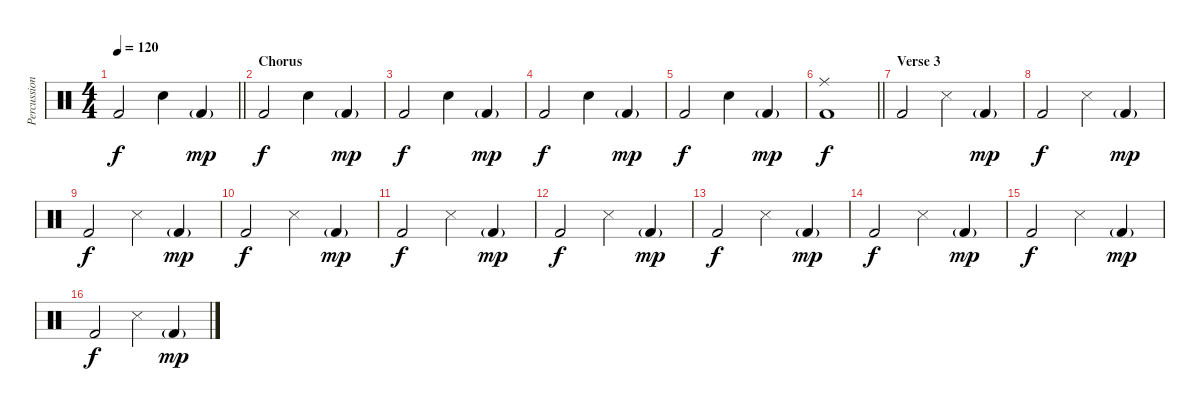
\track ("Percussion" "Percussion") {instrument percussion}
\staff {score}
\articulation defaults
\ts (4 4)
\tempo 120
\clef neutral
\barLineRight lightlight
\ks c "Kick (hit) 2".2{dy f} "Snare (hit) 2".4 "Kick (hit) 2"{g}.4{dy mp}
|
\section ("" "Chorus")
"Kick (hit) 2".2{dy f} "Snare (hit) 2".4 "Kick (hit) 2"{g}.4{dy mp} |
"Kick (hit) 2".2{dy f} "Snare (hit) 2".4 "Kick (hit) 2"{g}.4{dy mp} |
"Kick (hit) 2".2{dy f} "Snare (hit) 2".4 "Kick (hit) 2"{g}.4{dy mp} |
"Kick (hit) 2".2{dy f} "Snare (hit) 2".4 "Kick (hit) 2"{g}.4{dy mp} |
\barLineRight lightlight
("Ride (middle)" "Kick (hit) 2").1{dy f} |
\section ("" "Verse 3")
"Kick (hit) 2".2 "Snare (side stick) 3".4 "Kick (hit) 2"{g}.4{dy mp} |
"Kick (hit) 2".2{dy f} "Snare (side stick) 3".4 "Kick (hit) 2"{g}.4{dy mp} |
"Kick (hit) 2".2{dy f} "Snare (side stick) 3".4 "Kick (hit) 2"{g}.4{dy mp} |
"Kick (hit) 2".2{dy f} "Snare (side stick) 3".4 "Kick (hit) 2"{g}.4{dy mp} |
"Kick (hit) 2".2{dy f} "Snare (side stick) 3".4 "Kick (hit) 2"{g}.4{dy mp} |
"Kick (hit) 2".2{dy f} "Snare (side stick) 3".4 "Kick (hit) 2"{g}.4{dy mp} |
"Kick (hit) 2".2{dy f} "Snare (side stick) 3".4 "Kick (hit) 2"{g}.4{dy mp} |
"Kick (hit) 2".2{dy f} "Snare (side stick) 3".4 "Kick (hit) 2"{g}.4{dy mp} |
"Kick (hit) 2".2{dy f} "Snare (side stick) 3".4 "Kick (hit) 2"{g}.4{dy mp} |
"Kick (hit) 2".2{dy f} "Snare (side stick) 3".4 "Kick (hit) 2"{g}.4{dy mp}
